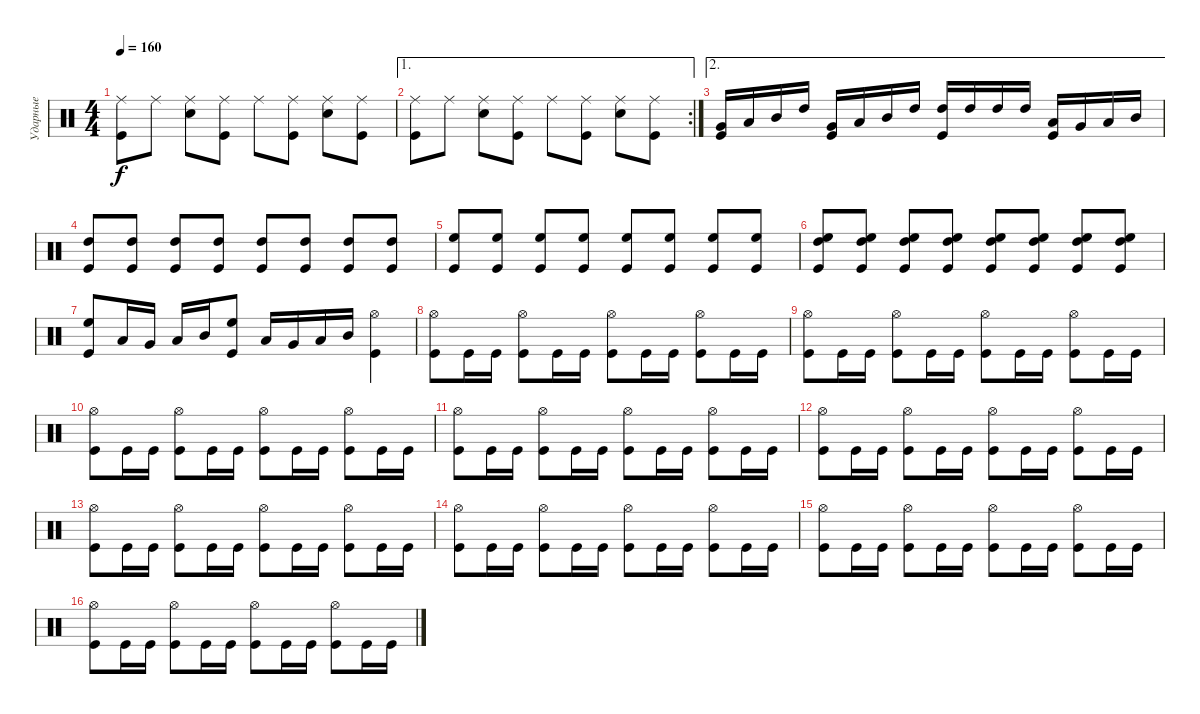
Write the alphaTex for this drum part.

\track ("Ударные" "Ударные") {instrument percussion}
\staff {score}
\articulation defaults
\ts (4 4)
\tempo 160
\clef neutral
\ks aminor
("Ride (middle)" "Kick (hit)").8{dy f} "Ride (middle)".8 ("Ride (middle)" "Snare (hit) 2").8 ("Ride (middle)" "Kick (hit)").8 "Ride (middle)".8 ("Ride (middle)" "Kick (hit)").8 ("Ride (middle)" "Snare (hit) 2").8 ("Ride (middle)" "Kick (hit)").8 |
\ae 1
\rc 2
("Ride (middle)" "Kick (hit)").8 "Ride (middle)".8 ("Ride (middle)" "Snare (hit) 2").8 ("Ride (middle)" "Kick (hit)").8 "Ride (middle)".8 ("Ride (middle)" "Kick (hit)").8 ("Ride (middle)" "Snare (hit) 2").8 ("Ride (middle)" "Kick (hit)").8 |
\ae 2
("Kick (hit)" "Very Low Tom (hit)").16 "Low Tom (hit)".16 "Mid Tom (hit)".16 "High Tom (hit)".16 ("Kick (hit)" "Very Low Tom (hit)").16 "Low Tom (hit)".16 "Mid Tom (hit)".16 "High Tom (hit)".16 ("Kick (hit)" "High Tom (hit)").16 "High Tom (hit)".16 "High Tom (hit)".16 "High Tom (hit)".16 ("Kick (hit)" "Low Floor Tom (hit)").16 "Very Low Tom (hit)".16 "Low Tom (hit)".16 "Mid Tom (hit)".16 |
("Kick (hit)" "High Tom (hit)").8 ("Kick (hit)" "High Tom (hit)").8 ("Kick (hit)" "High Tom (hit)").8 ("Kick (hit)" "High Tom (hit)").8 ("Kick (hit)" "High Tom (hit)").8 ("Kick (hit)" "High Tom (hit)").8 ("Kick (hit)" "High Tom (hit)").8 ("Kick (hit)" "High Tom (hit)").8 |
("Kick (hit)" "High Floor Tom (hit)").8 ("Kick (hit)" "High Floor Tom (hit)").8 ("Kick (hit)" "High Floor Tom (hit)").8 ("Kick (hit)" "High Floor Tom (hit)").8 ("Kick (hit)" "High Floor Tom (hit)").8 ("Kick (hit)" "High Floor Tom (hit)").8 ("Kick (hit)" "High Floor Tom (hit)").8 ("Kick (hit)" "High Floor Tom (hit)").8 |
("Kick (hit)" "High Floor Tom (hit)" "High Tom (hit)").8 ("Kick (hit)" "High Floor Tom (hit)" "High Tom (hit)").8 ("Kick (hit)" "High Tom (hit)" "High Floor Tom (hit)").8 ("Kick (hit)" "High Tom (hit)" "High Floor Tom (hit)").8 ("Kick (hit)" "High Tom (hit)" "High Floor Tom (hit)").8 ("Kick (hit)" "High Tom (hit)" "High Floor Tom (hit)").8 ("Kick (hit)" "High Tom (hit)" "High Floor Tom (hit)").8 ("Kick (hit)" "High Tom (hit)" "High Floor Tom (hit)").8 |
("Kick (hit)" "High Floor Tom (hit)").8 "Low Floor Tom (hit)".16 "Very Low Tom (hit)".16 "Low Tom (hit)".16 "Mid Tom (hit)".16 ("Kick (hit)" "High Floor Tom (hit)").8 "Low Floor Tom (hit)".16 "Very Low Tom (hit)".16 "Low Tom (hit)".16 "Mid Tom (hit)".16 ("Kick (hit)" "Hi-Hat (open)").4 |
("Kick (hit)" "Hi-Hat (open)").8 "Kick (hit)".16 "Kick (hit)".16 ("Kick (hit)" "Hi-Hat (open)").8 "Kick (hit)".16 "Kick (hit)".16 ("Kick (hit)" "Hi-Hat (open)").8 "Kick (hit)".16 "Kick (hit)".16 ("Kick (hit)" "Hi-Hat (open)").8 "Kick (hit)".16 "Kick (hit)".16 |
("Kick (hit)" "Hi-Hat (open)").8 "Kick (hit)".16 "Kick (hit)".16 ("Kick (hit)" "Hi-Hat (open)").8 "Kick (hit)".16 "Kick (hit)".16 ("Kick (hit)" "Hi-Hat (open)").8 "Kick (hit)".16 "Kick (hit)".16 ("Kick (hit)" "Hi-Hat (open)").8 "Kick (hit)".16 "Kick (hit)".16 |
("Kick (hit)" "Hi-Hat (open)").8 "Kick (hit)".16 "Kick (hit)".16 ("Kick (hit)" "Hi-Hat (open)").8 "Kick (hit)".16 "Kick (hit)".16 ("Kick (hit)" "Hi-Hat (open)").8 "Kick (hit)".16 "Kick (hit)".16 ("Kick (hit)" "Hi-Hat (open)").8 "Kick (hit)".16 "Kick (hit)".16 |
("Kick (hit)" "Hi-Hat (open)").8 "Kick (hit)".16 "Kick (hit)".16 ("Kick (hit)" "Hi-Hat (open)").8 "Kick (hit)".16 "Kick (hit)".16 ("Kick (hit)" "Hi-Hat (open)").8 "Kick (hit)".16 "Kick (hit)".16 ("Kick (hit)" "Hi-Hat (open)").8 "Kick (hit)".16 "Kick (hit)".16 |
("Kick (hit)" "Hi-Hat (open)").8 "Kick (hit)".16 "Kick (hit)".16 ("Kick (hit)" "Hi-Hat (open)").8 "Kick (hit)".16 "Kick (hit)".16 ("Kick (hit)" "Hi-Hat (open)").8 "Kick (hit)".16 "Kick (hit)".16 ("Kick (hit)" "Hi-Hat (open)").8 "Kick (hit)".16 "Kick (hit)".16 |
("Kick (hit)" "Hi-Hat (open)").8 "Kick (hit)".16 "Kick (hit)".16 ("Kick (hit)" "Hi-Hat (open)").8 "Kick (hit)".16 "Kick (hit)".16 ("Kick (hit)" "Hi-Hat (open)").8 "Kick (hit)".16 "Kick (hit)".16 ("Kick (hit)" "Hi-Hat (open)").8 "Kick (hit)".16 "Kick (hit)".16 |
("Kick (hit)" "Hi-Hat (open)").8 "Kick (hit)".16 "Kick (hit)".16 ("Kick (hit)" "Hi-Hat (open)").8 "Kick (hit)".16 "Kick (hit)".16 ("Kick (hit)" "Hi-Hat (open)").8 "Kick (hit)".16 "Kick (hit)".16 ("Kick (hit)" "Hi-Hat (open)").8 "Kick (hit)".16 "Kick (hit)".16 |
("Kick (hit)" "Hi-Hat (open)").8 "Kick (hit)".16 "Kick (hit)".16 ("Kick (hit)" "Hi-Hat (open)").8 "Kick (hit)".16 "Kick (hit)".16 ("Kick (hit)" "Hi-Hat (open)").8 "Kick (hit)".16 "Kick (hit)".16 ("Kick (hit)" "Hi-Hat (open)").8 "Kick (hit)".16 "Kick (hit)".16 |
("Kick (hit)" "Hi-Hat (open)").8 "Kick (hit)".16 "Kick (hit)".16 ("Kick (hit)" "Hi-Hat (open)").8 "Kick (hit)".16 "Kick (hit)".16 ("Kick (hit)" "Hi-Hat (open)").8 "Kick (hit)".16 "Kick (hit)".16 ("Kick (hit)" "Hi-Hat (open)").8 "Kick (hit)".16 "Kick (hit)".16
